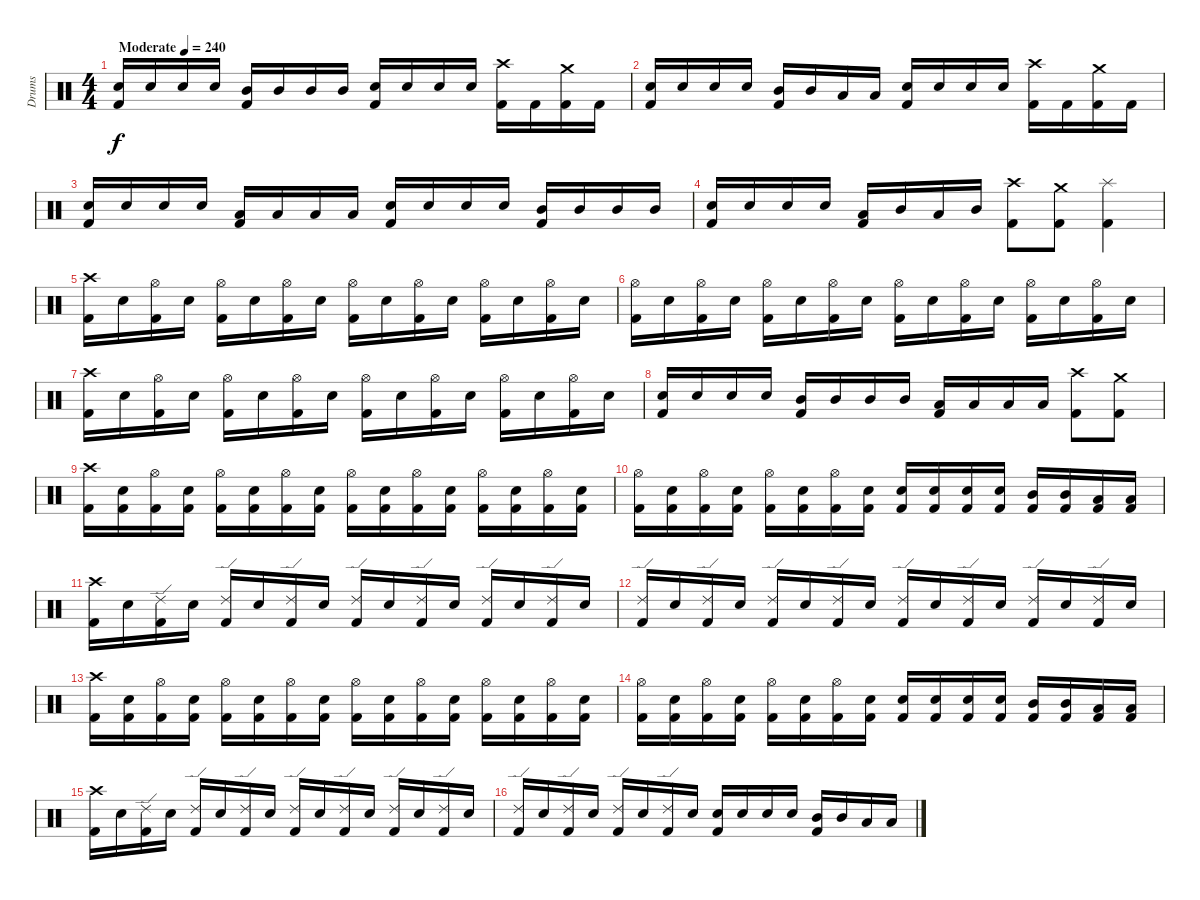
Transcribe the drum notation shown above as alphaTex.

\track ("Drums" "Drums") {instrument percussion}
\staff {score}
\articulation defaults
\ts (4 4)
\tempo (240 "Moderate")
\clef neutral
\ks c
("Snare (hit) 2" "Kick (hit) 2").16{dy f} "Snare (hit) 2".16 "Snare (hit) 2".16 "Snare (hit) 2".16 ("Mid Tom (hit)" "Kick (hit) 2").16 "Mid Tom (hit)".16 "Mid Tom (hit)".16 "Mid Tom (hit)".16 ("Snare (hit) 2" "Kick (hit) 2").16 "Snare (hit) 2".16 "Snare (hit) 2".16 "Snare (hit) 2".16 ("Crash high (hit)" "Kick (hit) 2").16 "Kick (hit) 2".16 ("Crash medium (hit)" "Kick (hit) 2").16 "Kick (hit) 2".16 |
("Snare (hit) 2" "Kick (hit) 2").16 "Snare (hit) 2".16 "Snare (hit) 2".16 "Snare (hit) 2".16 ("Mid Tom (hit)" "Kick (hit) 2").16 "Mid Tom (hit)".16 "Low Tom (hit)".16 "Low Tom (hit)".16 ("Snare (hit) 2" "Kick (hit) 2").16 "Snare (hit) 2".16 "Snare (hit) 2".16 "Snare (hit) 2".16 ("Crash high (hit)" "Kick (hit) 2").16 "Kick (hit) 2".16 ("Crash medium (hit)" "Kick (hit) 2").16 "Kick (hit) 2".16 |
("Snare (hit) 2" "Kick (hit) 2").16 "Snare (hit) 2".16 "Snare (hit) 2".16 "Snare (hit) 2".16 ("Low Tom (hit)" "Kick (hit) 2").16 "Low Tom (hit)".16 "Low Tom (hit)".16 "Low Tom (hit)".16 ("Snare (hit) 2" "Kick (hit) 2").16 "Snare (hit) 2".16 "Snare (hit) 2".16 "Snare (hit) 2".16 ("Mid Tom (hit)" "Kick (hit) 2").16 "Mid Tom (hit)".16 "Mid Tom (hit)".16 "Mid Tom (hit)".16 |
("Snare (hit) 2" "Kick (hit) 2").16 "Snare (hit) 2".16 "Snare (hit) 2".16 "Snare (hit) 2".16 ("Low Tom (hit)" "Kick (hit) 2").16 "Mid Tom (hit)".16 "Low Tom (hit)".16 "Mid Tom (hit)".16 ("Crash high (hit)" "Kick (hit) 2").8 ("Crash medium (hit)" "Kick (hit) 2").8 ("Splash (hit)" "Kick (hit) 2").4 |
("Crash high (hit)" "Kick (hit) 2").16 "Snare (hit) 2".16 ("Hi-Hat (open)" "Kick (hit) 2").16 "Snare (hit) 2".16 ("Hi-Hat (open)" "Kick (hit) 2").16 "Snare (hit) 2".16 ("Hi-Hat (open)" "Kick (hit) 2").16 "Snare (hit) 2".16 ("Hi-Hat (open)" "Kick (hit) 2").16 "Snare (hit) 2".16 ("Hi-Hat (open)" "Kick (hit) 2").16 "Snare (hit) 2".16 ("Hi-Hat (open)" "Kick (hit) 2").16 "Snare (hit) 2".16 ("Hi-Hat (open)" "Kick (hit) 2").16 "Snare (hit) 2".16 |
("Hi-Hat (open)" "Kick (hit) 2").16 "Snare (hit) 2".16 ("Hi-Hat (open)" "Kick (hit) 2").16 "Snare (hit) 2".16 ("Hi-Hat (open)" "Kick (hit) 2").16 "Snare (hit) 2".16 ("Hi-Hat (open)" "Kick (hit) 2").16 "Snare (hit) 2".16 ("Hi-Hat (open)" "Kick (hit) 2").16 "Snare (hit) 2".16 ("Hi-Hat (open)" "Kick (hit) 2").16 "Snare (hit) 2".16 ("Hi-Hat (open)" "Kick (hit) 2").16 "Snare (hit) 2".16 ("Hi-Hat (open)" "Kick (hit) 2").16 "Snare (hit) 2".16 |
("Crash high (hit)" "Kick (hit) 2").16 "Snare (hit) 2".16 ("Hi-Hat (open)" "Kick (hit) 2").16 "Snare (hit) 2".16 ("Hi-Hat (open)" "Kick (hit) 2").16 "Snare (hit) 2".16 ("Hi-Hat (open)" "Kick (hit) 2").16 "Snare (hit) 2".16 ("Hi-Hat (open)" "Kick (hit) 2").16 "Snare (hit) 2".16 ("Hi-Hat (open)" "Kick (hit) 2").16 "Snare (hit) 2".16 ("Hi-Hat (open)" "Kick (hit) 2").16 "Snare (hit) 2".16 ("Hi-Hat (open)" "Kick (hit) 2").16 "Snare (hit) 2".16 |
("Snare (hit) 2" "Kick (hit) 2").16 "Snare (hit) 2".16 "Snare (hit) 2".16 "Snare (hit) 2".16 ("Mid Tom (hit)" "Kick (hit) 2").16 "Mid Tom (hit)".16 "Mid Tom (hit)".16 "Mid Tom (hit)".16 ("Low Tom (hit)" "Kick (hit) 2").16 "Low Tom (hit)".16 "Low Tom (hit)".16 "Low Tom (hit)".16 ("Crash high (hit)" "Kick (hit) 2").8 ("Crash medium (hit)" "Kick (hit) 2").8 |
("Crash high (hit)" "Kick (hit) 2").16 ("Snare (hit) 2" "Kick (hit) 2").16 ("Hi-Hat (open)" "Kick (hit) 2").16 ("Snare (hit) 2" "Kick (hit) 2").16 ("Hi-Hat (open)" "Kick (hit) 2").16 ("Snare (hit) 2" "Kick (hit) 2").16 ("Hi-Hat (open)" "Kick (hit) 2").16 ("Snare (hit) 2" "Kick (hit) 2").16 ("Hi-Hat (open)" "Kick (hit) 2").16 ("Snare (hit) 2" "Kick (hit) 2").16 ("Hi-Hat (open)" "Kick (hit) 2").16 ("Snare (hit) 2" "Kick (hit) 2").16 ("Hi-Hat (open)" "Kick (hit) 2").16 ("Snare (hit) 2" "Kick (hit) 2").16 ("Hi-Hat (open)" "Kick (hit) 2").16 ("Snare (hit) 2" "Kick (hit) 2").16 |
("Hi-Hat (open)" "Kick (hit) 2").16 ("Snare (hit) 2" "Kick (hit) 2").16 ("Hi-Hat (open)" "Kick (hit) 2").16 ("Snare (hit) 2" "Kick (hit) 2").16 ("Hi-Hat (open)" "Kick (hit) 2").16 ("Snare (hit) 2" "Kick (hit) 2").16 ("Hi-Hat (open)" "Kick (hit) 2").16 ("Snare (hit) 2" "Kick (hit) 2").16 ("Snare (hit) 2" "Kick (hit) 2").16 ("Snare (hit) 2" "Kick (hit) 2").16 ("Snare (hit) 2" "Kick (hit) 2").16 ("Snare (hit) 2" "Kick (hit) 2").16 ("Mid Tom (hit)" "Kick (hit) 2").16 ("Mid Tom (hit)" "Kick (hit) 2").16 ("Low Tom (hit)" "Kick (hit) 2").16 ("Low Tom (hit)" "Kick (hit) 2").16 |
("Crash high (hit)" "Kick (hit) 2").16 "Snare (hit) 2".16 ("Ride (edge) 2" "Kick (hit) 2").16 "Snare (hit) 2".16 ("Ride (edge) 2" "Kick (hit) 2").16 "Snare (hit) 2".16 ("Ride (edge) 2" "Kick (hit) 2").16 "Snare (hit) 2".16 ("Ride (edge) 2" "Kick (hit) 2").16 "Snare (hit) 2".16 ("Ride (edge) 2" "Kick (hit) 2").16 "Snare (hit) 2".16 ("Ride (edge) 2" "Kick (hit) 2").16 "Snare (hit) 2".16 ("Ride (edge) 2" "Kick (hit) 2").16 "Snare (hit) 2".16 |
("Ride (edge) 2" "Kick (hit) 2").16 "Snare (hit) 2".16 ("Ride (edge) 2" "Kick (hit) 2").16 "Snare (hit) 2".16 ("Ride (edge) 2" "Kick (hit) 2").16 "Snare (hit) 2".16 ("Ride (edge) 2" "Kick (hit) 2").16 "Snare (hit) 2".16 ("Ride (edge) 2" "Kick (hit) 2").16 "Snare (hit) 2".16 ("Ride (edge) 2" "Kick (hit) 2").16 "Snare (hit) 2".16 ("Ride (edge) 2" "Kick (hit) 2").16 "Snare (hit) 2".16 ("Ride (edge) 2" "Kick (hit) 2").16 "Snare (hit) 2".16 |
("Crash high (hit)" "Kick (hit) 2").16 ("Snare (hit) 2" "Kick (hit) 2").16 ("Hi-Hat (open)" "Kick (hit) 2").16 ("Snare (hit) 2" "Kick (hit) 2").16 ("Hi-Hat (open)" "Kick (hit) 2").16 ("Snare (hit) 2" "Kick (hit) 2").16 ("Hi-Hat (open)" "Kick (hit) 2").16 ("Snare (hit) 2" "Kick (hit) 2").16 ("Hi-Hat (open)" "Kick (hit) 2").16 ("Snare (hit) 2" "Kick (hit) 2").16 ("Hi-Hat (open)" "Kick (hit) 2").16 ("Snare (hit) 2" "Kick (hit) 2").16 ("Hi-Hat (open)" "Kick (hit) 2").16 ("Snare (hit) 2" "Kick (hit) 2").16 ("Hi-Hat (open)" "Kick (hit) 2").16 ("Snare (hit) 2" "Kick (hit) 2").16 |
("Hi-Hat (open)" "Kick (hit) 2").16 ("Snare (hit) 2" "Kick (hit) 2").16 ("Hi-Hat (open)" "Kick (hit) 2").16 ("Snare (hit) 2" "Kick (hit) 2").16 ("Hi-Hat (open)" "Kick (hit) 2").16 ("Snare (hit) 2" "Kick (hit) 2").16 ("Hi-Hat (open)" "Kick (hit) 2").16 ("Snare (hit) 2" "Kick (hit) 2").16 ("Snare (hit) 2" "Kick (hit) 2").16 ("Snare (hit) 2" "Kick (hit) 2").16 ("Snare (hit) 2" "Kick (hit) 2").16 ("Snare (hit) 2" "Kick (hit) 2").16 ("Mid Tom (hit)" "Kick (hit) 2").16 ("Mid Tom (hit)" "Kick (hit) 2").16 ("Low Tom (hit)" "Kick (hit) 2").16 ("Low Tom (hit)" "Kick (hit) 2").16 |
("Crash high (hit)" "Kick (hit) 2").16 "Snare (hit) 2".16 ("Ride (edge) 2" "Kick (hit) 2").16 "Snare (hit) 2".16 ("Ride (edge) 2" "Kick (hit) 2").16 "Snare (hit) 2".16 ("Ride (edge) 2" "Kick (hit) 2").16 "Snare (hit) 2".16 ("Ride (edge) 2" "Kick (hit) 2").16 "Snare (hit) 2".16 ("Ride (edge) 2" "Kick (hit) 2").16 "Snare (hit) 2".16 ("Ride (edge) 2" "Kick (hit) 2").16 "Snare (hit) 2".16 ("Ride (edge) 2" "Kick (hit) 2").16 "Snare (hit) 2".16 |
("Ride (edge) 2" "Kick (hit) 2").16 "Snare (hit) 2".16 ("Ride (edge) 2" "Kick (hit) 2").16 "Snare (hit) 2".16 ("Ride (edge) 2" "Kick (hit) 2").16 "Snare (hit) 2".16 ("Ride (edge) 2" "Kick (hit) 2").16 "Snare (hit) 2".16 ("Snare (hit) 2" "Kick (hit) 2").16 "Snare (hit) 2".16 "Snare (hit) 2".16 "Snare (hit) 2".16 ("Mid Tom (hit)" "Kick (hit) 2").16 "Mid Tom (hit)".16 "Low Tom (hit)".16 "Low Tom (hit)".16
